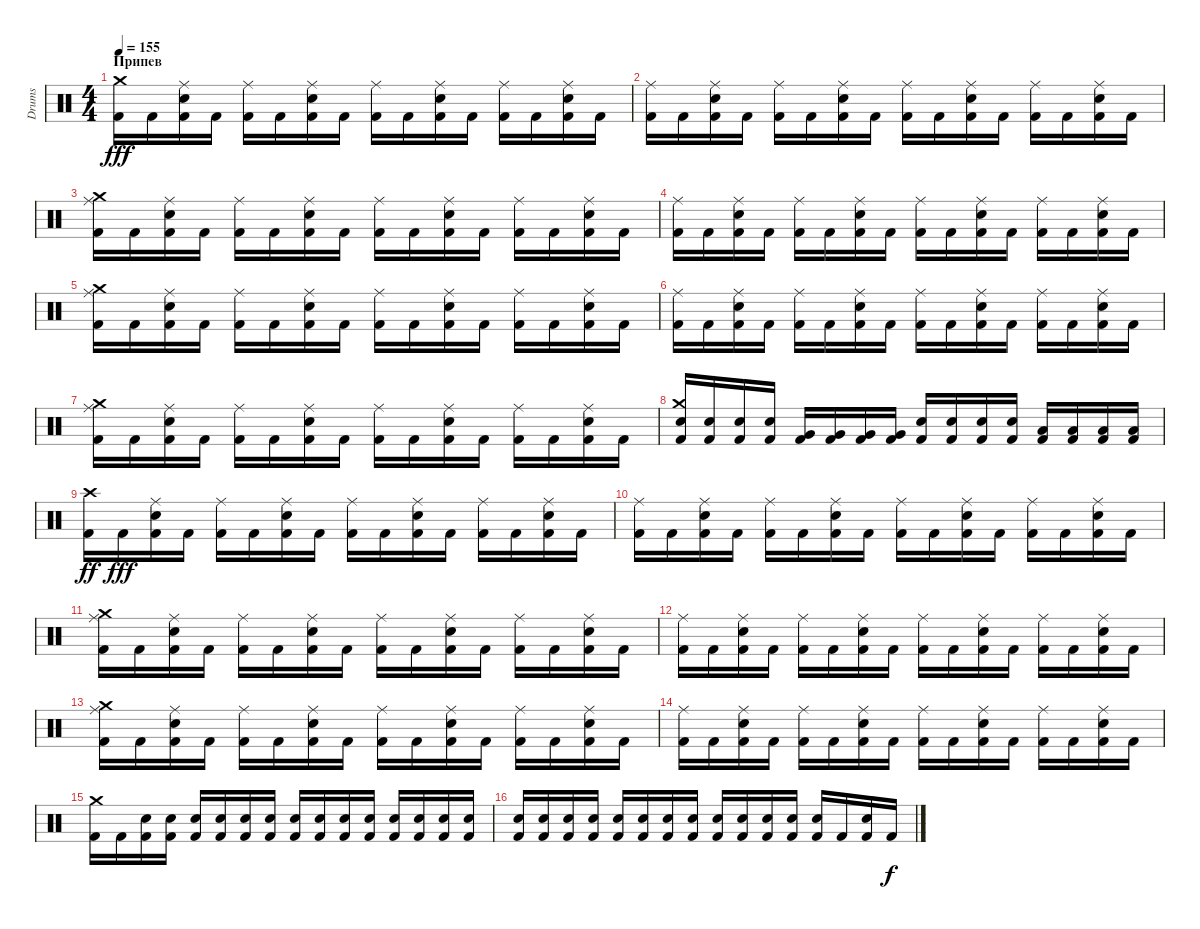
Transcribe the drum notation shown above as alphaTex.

\track ("Drums" "Drums") {instrument percussion}
\staff {score}
\articulation defaults
\ts (4 4)
\section ("" "Припев")
\tempo 155
\clef neutral
\ks c
("Kick (hit) 2" "Crash medium (hit)").16{dy fff} "Kick (hit) 2".16 ("Kick (hit) 2" "Ride (middle)" "Snare (hit) 2").16 "Kick (hit) 2".16 ("Kick (hit) 2" "Ride (middle)").16 "Kick (hit) 2".16 ("Kick (hit) 2" "Ride (middle)" "Snare (hit) 2").16 "Kick (hit) 2".16 ("Kick (hit) 2" "Ride (middle)").16 "Kick (hit) 2".16 ("Kick (hit) 2" "Ride (middle)" "Snare (hit) 2").16 "Kick (hit) 2".16 ("Kick (hit) 2" "Ride (middle)").16 "Kick (hit) 2".16 ("Kick (hit) 2" "Ride (middle)" "Snare (hit) 2").16 "Kick (hit) 2".16 |
("Kick (hit) 2" "Ride (middle)").16 "Kick (hit) 2".16 ("Kick (hit) 2" "Ride (middle)" "Snare (hit) 2").16 "Kick (hit) 2".16 ("Kick (hit) 2" "Ride (middle)").16 "Kick (hit) 2".16 ("Kick (hit) 2" "Ride (middle)" "Snare (hit) 2").16 "Kick (hit) 2".16 ("Kick (hit) 2" "Ride (middle)").16 "Kick (hit) 2".16 ("Kick (hit) 2" "Ride (middle)" "Snare (hit) 2").16 "Kick (hit) 2".16 ("Kick (hit) 2" "Ride (middle)").16 "Kick (hit) 2".16 ("Kick (hit) 2" "Ride (middle)" "Snare (hit) 2").16 "Kick (hit) 2".16 |
("Kick (hit) 2" "Ride (middle)" "Crash medium (hit)").16 "Kick (hit) 2".16 ("Kick (hit) 2" "Ride (middle)" "Snare (hit) 2").16 "Kick (hit) 2".16 ("Kick (hit) 2" "Ride (middle)").16 "Kick (hit) 2".16 ("Kick (hit) 2" "Ride (middle)" "Snare (hit) 2").16 "Kick (hit) 2".16 ("Kick (hit) 2" "Ride (middle)").16 "Kick (hit) 2".16 ("Kick (hit) 2" "Ride (middle)" "Snare (hit) 2").16 "Kick (hit) 2".16 ("Kick (hit) 2" "Ride (middle)").16 "Kick (hit) 2".16 ("Kick (hit) 2" "Ride (middle)" "Snare (hit) 2").16 "Kick (hit) 2".16 |
("Kick (hit) 2" "Ride (middle)").16 "Kick (hit) 2".16 ("Kick (hit) 2" "Ride (middle)" "Snare (hit) 2").16 "Kick (hit) 2".16 ("Kick (hit) 2" "Ride (middle)").16 "Kick (hit) 2".16 ("Kick (hit) 2" "Ride (middle)" "Snare (hit) 2").16 "Kick (hit) 2".16 ("Kick (hit) 2" "Ride (middle)").16 "Kick (hit) 2".16 ("Kick (hit) 2" "Ride (middle)" "Snare (hit) 2").16 "Kick (hit) 2".16 ("Kick (hit) 2" "Ride (middle)").16 "Kick (hit) 2".16 ("Kick (hit) 2" "Ride (middle)" "Snare (hit) 2").16 "Kick (hit) 2".16 |
("Kick (hit) 2" "Ride (middle)" "Crash medium (hit)").16 "Kick (hit) 2".16 ("Kick (hit) 2" "Ride (middle)" "Snare (hit) 2").16 "Kick (hit) 2".16 ("Kick (hit) 2" "Ride (middle)").16 "Kick (hit) 2".16 ("Kick (hit) 2" "Ride (middle)" "Snare (hit) 2").16 "Kick (hit) 2".16 ("Kick (hit) 2" "Ride (middle)").16 "Kick (hit) 2".16 ("Kick (hit) 2" "Ride (middle)" "Snare (hit) 2").16 "Kick (hit) 2".16 ("Kick (hit) 2" "Ride (middle)").16 "Kick (hit) 2".16 ("Kick (hit) 2" "Ride (middle)" "Snare (hit) 2").16 "Kick (hit) 2".16 |
("Kick (hit) 2" "Ride (middle)").16 "Kick (hit) 2".16 ("Kick (hit) 2" "Ride (middle)" "Snare (hit) 2").16 "Kick (hit) 2".16 ("Kick (hit) 2" "Ride (middle)").16 "Kick (hit) 2".16 ("Kick (hit) 2" "Ride (middle)" "Snare (hit) 2").16 "Kick (hit) 2".16 ("Kick (hit) 2" "Ride (middle)").16 "Kick (hit) 2".16 ("Kick (hit) 2" "Ride (middle)" "Snare (hit) 2").16 "Kick (hit) 2".16 ("Kick (hit) 2" "Ride (middle)").16 "Kick (hit) 2".16 ("Kick (hit) 2" "Ride (middle)" "Snare (hit) 2").16 "Kick (hit) 2".16 |
("Kick (hit) 2" "Ride (middle)" "Crash medium (hit)").16 "Kick (hit) 2".16 ("Kick (hit) 2" "Ride (middle)" "Snare (hit) 2").16 "Kick (hit) 2".16 ("Kick (hit) 2" "Ride (middle)").16 "Kick (hit) 2".16 ("Kick (hit) 2" "Ride (middle)" "Snare (hit) 2").16 "Kick (hit) 2".16 ("Kick (hit) 2" "Ride (middle)").16 "Kick (hit) 2".16 ("Kick (hit) 2" "Ride (middle)" "Snare (hit) 2").16 "Kick (hit) 2".16 ("Kick (hit) 2" "Ride (middle)").16 "Kick (hit) 2".16 ("Kick (hit) 2" "Ride (middle)" "Snare (hit) 2").16 "Kick (hit) 2".16 |
("Kick (hit) 2" "Snare (hit) 2" "Crash medium (hit)").16 ("Kick (hit) 2" "Snare (hit) 2").16 ("Kick (hit) 2" "Snare (hit) 2").16 ("Kick (hit) 2" "Snare (hit) 2").16 ("Kick (hit) 2" "Very Low Tom (hit)").16 ("Kick (hit) 2" "Very Low Tom (hit)").16 ("Kick (hit) 2" "Very Low Tom (hit)").16 ("Kick (hit) 2" "Very Low Tom (hit)").16 ("Kick (hit) 2" "Snare (hit) 2").16 ("Kick (hit) 2" "Snare (hit) 2").16 ("Kick (hit) 2" "Snare (hit) 2").16 ("Kick (hit) 2" "Snare (hit) 2").16 ("Kick (hit) 2" "Low Floor Tom (hit)").16 ("Kick (hit) 2" "Low Floor Tom (hit)").16 ("Kick (hit) 2" "Low Floor Tom (hit)").16 ("Kick (hit) 2" "Low Floor Tom (hit)").16 |
("Kick (hit) 2" "Crash high (hit)").16{dy ff} "Kick (hit) 2".16{dy fff} ("Kick (hit) 2" "Ride (middle)" "Snare (hit) 2").16 "Kick (hit) 2".16 ("Kick (hit) 2" "Ride (middle)").16 "Kick (hit) 2".16 ("Kick (hit) 2" "Ride (middle)" "Snare (hit) 2").16 "Kick (hit) 2".16 ("Kick (hit) 2" "Ride (middle)").16 "Kick (hit) 2".16 ("Kick (hit) 2" "Ride (middle)" "Snare (hit) 2").16 "Kick (hit) 2".16 ("Kick (hit) 2" "Ride (middle)").16 "Kick (hit) 2".16 ("Kick (hit) 2" "Ride (middle)" "Snare (hit) 2").16 "Kick (hit) 2".16 |
("Kick (hit) 2" "Ride (middle)").16 "Kick (hit) 2".16 ("Kick (hit) 2" "Ride (middle)" "Snare (hit) 2").16 "Kick (hit) 2".16 ("Kick (hit) 2" "Ride (middle)").16 "Kick (hit) 2".16 ("Kick (hit) 2" "Ride (middle)" "Snare (hit) 2").16 "Kick (hit) 2".16 ("Kick (hit) 2" "Ride (middle)").16 "Kick (hit) 2".16 ("Kick (hit) 2" "Ride (middle)" "Snare (hit) 2").16 "Kick (hit) 2".16 ("Kick (hit) 2" "Ride (middle)").16 "Kick (hit) 2".16 ("Kick (hit) 2" "Ride (middle)" "Snare (hit) 2").16 "Kick (hit) 2".16 |
("Kick (hit) 2" "Ride (middle)" "Crash medium (hit)").16 "Kick (hit) 2".16 ("Kick (hit) 2" "Ride (middle)" "Snare (hit) 2").16 "Kick (hit) 2".16 ("Kick (hit) 2" "Ride (middle)").16 "Kick (hit) 2".16 ("Kick (hit) 2" "Ride (middle)" "Snare (hit) 2").16 "Kick (hit) 2".16 ("Kick (hit) 2" "Ride (middle)").16 "Kick (hit) 2".16 ("Kick (hit) 2" "Ride (middle)" "Snare (hit) 2").16 "Kick (hit) 2".16 ("Kick (hit) 2" "Ride (middle)").16 "Kick (hit) 2".16 ("Kick (hit) 2" "Ride (middle)" "Snare (hit) 2").16 "Kick (hit) 2".16 |
("Kick (hit) 2" "Ride (middle)").16 "Kick (hit) 2".16 ("Kick (hit) 2" "Ride (middle)" "Snare (hit) 2").16 "Kick (hit) 2".16 ("Kick (hit) 2" "Ride (middle)").16 "Kick (hit) 2".16 ("Kick (hit) 2" "Ride (middle)" "Snare (hit) 2").16 "Kick (hit) 2".16 ("Kick (hit) 2" "Ride (middle)").16 "Kick (hit) 2".16 ("Kick (hit) 2" "Ride (middle)" "Snare (hit) 2").16 "Kick (hit) 2".16 ("Kick (hit) 2" "Ride (middle)").16 "Kick (hit) 2".16 ("Kick (hit) 2" "Ride (middle)" "Snare (hit) 2").16 "Kick (hit) 2".16 |
("Kick (hit) 2" "Ride (middle)" "Crash medium (hit)").16 "Kick (hit) 2".16 ("Kick (hit) 2" "Ride (middle)" "Snare (hit) 2").16 "Kick (hit) 2".16 ("Kick (hit) 2" "Ride (middle)").16 "Kick (hit) 2".16 ("Kick (hit) 2" "Ride (middle)" "Snare (hit) 2").16 "Kick (hit) 2".16 ("Kick (hit) 2" "Ride (middle)").16 "Kick (hit) 2".16 ("Kick (hit) 2" "Ride (middle)" "Snare (hit) 2").16 "Kick (hit) 2".16 ("Kick (hit) 2" "Ride (middle)").16 "Kick (hit) 2".16 ("Kick (hit) 2" "Ride (middle)" "Snare (hit) 2").16 "Kick (hit) 2".16 |
("Kick (hit) 2" "Ride (middle)").16 "Kick (hit) 2".16 ("Kick (hit) 2" "Ride (middle)" "Snare (hit) 2").16 "Kick (hit) 2".16 ("Kick (hit) 2" "Ride (middle)").16 "Kick (hit) 2".16 ("Kick (hit) 2" "Ride (middle)" "Snare (hit) 2").16 "Kick (hit) 2".16 ("Kick (hit) 2" "Ride (middle)").16 "Kick (hit) 2".16 ("Kick (hit) 2" "Ride (middle)" "Snare (hit) 2").16 "Kick (hit) 2".16 ("Kick (hit) 2" "Ride (middle)").16 "Kick (hit) 2".16 ("Kick (hit) 2" "Ride (middle)" "Snare (hit) 2").16 "Kick (hit) 2".16 |
("Kick (hit) 2" "Crash medium (hit)").16 "Kick (hit) 2".16 ("Kick (hit) 2" "Snare (hit) 2").16 ("Kick (hit) 2" "Snare (hit) 2").16 ("Kick (hit) 2" "Snare (hit) 2").16 ("Kick (hit) 2" "Snare (hit) 2").16 ("Kick (hit) 2" "Snare (hit) 2").16 ("Kick (hit) 2" "Snare (hit) 2").16 ("Kick (hit) 2" "Snare (hit) 2").16 ("Kick (hit) 2" "Snare (hit) 2").16 ("Kick (hit) 2" "Snare (hit) 2").16 ("Kick (hit) 2" "Snare (hit) 2").16 ("Kick (hit) 2" "Snare (hit) 2").16 ("Kick (hit) 2" "Snare (hit) 2").16 ("Kick (hit) 2" "Snare (hit) 2").16 ("Kick (hit) 2" "Snare (hit) 2").16 |
("Kick (hit) 2" "Snare (hit) 2").16 ("Kick (hit) 2" "Snare (hit) 2").16 ("Kick (hit) 2" "Snare (hit) 2").16 ("Kick (hit) 2" "Snare (hit) 2").16 ("Kick (hit) 2" "Snare (hit) 2").16 ("Kick (hit) 2" "Snare (hit) 2").16 ("Kick (hit) 2" "Snare (hit) 2").16 ("Kick (hit) 2" "Snare (hit) 2").16 ("Kick (hit) 2" "Snare (hit) 2").16 ("Kick (hit) 2" "Snare (hit) 2").16 ("Kick (hit) 2" "Snare (hit) 2").16 ("Kick (hit) 2" "Snare (hit) 2").16 ("Kick (hit) 2" "Snare (hit) 2").16 "Kick (hit) 2".16 ("Kick (hit) 2" "Snare (hit) 2").16 "Kick (hit) 2".16{dy f}
